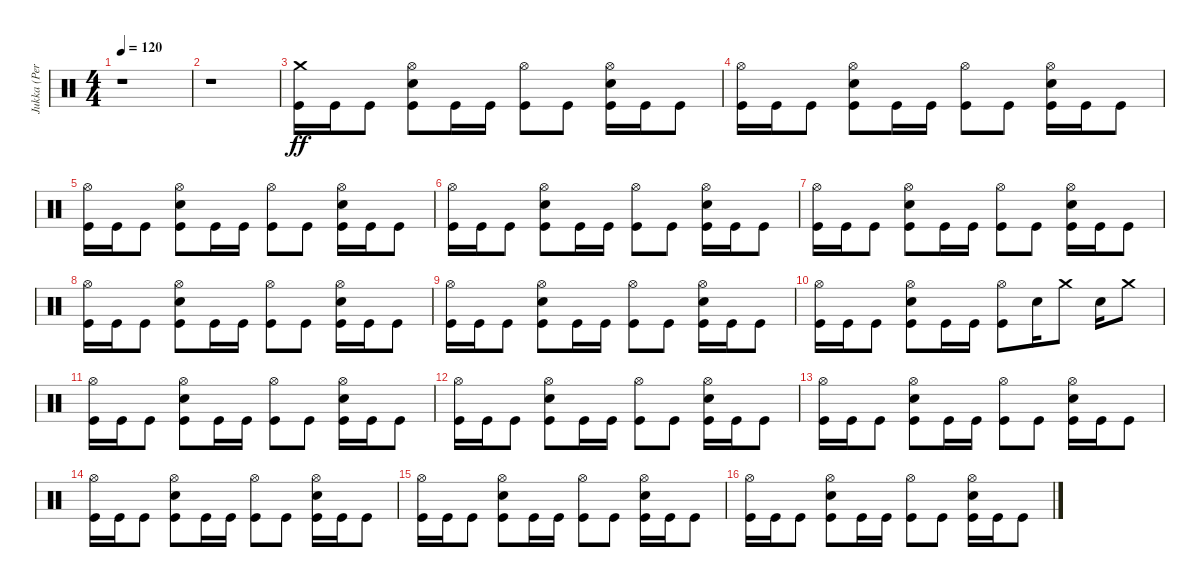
\track ("Jukka (Percussion)" "Jukka (Per") {instrument percussion}
\staff {score}
\articulation defaults
\ts (4 4)
\tempo 120
\clef neutral
\ks c
r.1{dy f} |
r.1 |
("Kick (hit)" "Crash medium (hit)").16{dy ff} "Kick (hit)".16 "Kick (hit)".8 ("Kick (hit)" "Electric Snare (hit)" "Hi-Hat (open)").8 "Kick (hit)".16 "Kick (hit)".16 ("Kick (hit)" "Hi-Hat (open)").8 "Kick (hit)".8 ("Kick (hit)" "Electric Snare (hit)" "Hi-Hat (open)").16 "Kick (hit)".16 "Kick (hit)".8 |
("Kick (hit)" "Hi-Hat (open)").16 "Kick (hit)".16 "Kick (hit)".8 ("Kick (hit)" "Electric Snare (hit)" "Hi-Hat (open)").8 "Kick (hit)".16 "Kick (hit)".16 ("Kick (hit)" "Hi-Hat (open)").8 "Kick (hit)".8 ("Kick (hit)" "Electric Snare (hit)" "Hi-Hat (open)").16 "Kick (hit)".16 "Kick (hit)".8 |
("Kick (hit)" "Hi-Hat (open)").16 "Kick (hit)".16 "Kick (hit)".8 ("Kick (hit)" "Electric Snare (hit)" "Hi-Hat (open)").8 "Kick (hit)".16 "Kick (hit)".16 ("Kick (hit)" "Hi-Hat (open)").8 "Kick (hit)".8 ("Kick (hit)" "Electric Snare (hit)" "Hi-Hat (open)").16 "Kick (hit)".16 "Kick (hit)".8 |
("Kick (hit)" "Hi-Hat (open)").16 "Kick (hit)".16 "Kick (hit)".8 ("Kick (hit)" "Electric Snare (hit)" "Hi-Hat (open)").8 "Kick (hit)".16 "Kick (hit)".16 ("Kick (hit)" "Hi-Hat (open)").8 "Kick (hit)".8 ("Kick (hit)" "Electric Snare (hit)" "Hi-Hat (open)").16 "Kick (hit)".16 "Kick (hit)".8 |
("Kick (hit)" "Hi-Hat (open)").16 "Kick (hit)".16 "Kick (hit)".8 ("Kick (hit)" "Electric Snare (hit)" "Hi-Hat (open)").8 "Kick (hit)".16 "Kick (hit)".16 ("Kick (hit)" "Hi-Hat (open)").8 "Kick (hit)".8 ("Kick (hit)" "Electric Snare (hit)" "Hi-Hat (open)").16 "Kick (hit)".16 "Kick (hit)".8 |
("Kick (hit)" "Hi-Hat (open)").16 "Kick (hit)".16 "Kick (hit)".8 ("Kick (hit)" "Electric Snare (hit)" "Hi-Hat (open)").8 "Kick (hit)".16 "Kick (hit)".16 ("Kick (hit)" "Hi-Hat (open)").8 "Kick (hit)".8 ("Kick (hit)" "Electric Snare (hit)" "Hi-Hat (open)").16 "Kick (hit)".16 "Kick (hit)".8 |
("Kick (hit)" "Hi-Hat (open)").16 "Kick (hit)".16 "Kick (hit)".8 ("Kick (hit)" "Electric Snare (hit)" "Hi-Hat (open)").8 "Kick (hit)".16 "Kick (hit)".16 ("Kick (hit)" "Hi-Hat (open)").8 "Kick (hit)".8 ("Kick (hit)" "Electric Snare (hit)" "Hi-Hat (open)").16 "Kick (hit)".16 "Kick (hit)".8 |
("Kick (hit)" "Hi-Hat (open)").16 "Kick (hit)".16 "Kick (hit)".8 ("Kick (hit)" "Electric Snare (hit)" "Hi-Hat (open)").8 "Kick (hit)".16 "Kick (hit)".16 ("Kick (hit)" "Hi-Hat (open)").8 "Electric Snare (hit)".16 "Crash medium (hit)".8 "Electric Snare (hit)".16 "Crash medium (hit)".8 |
("Kick (hit)" "Hi-Hat (open)").16 "Kick (hit)".16 "Kick (hit)".8 ("Kick (hit)" "Electric Snare (hit)" "Hi-Hat (open)").8 "Kick (hit)".16 "Kick (hit)".16 ("Kick (hit)" "Hi-Hat (open)").8 "Kick (hit)".8 ("Kick (hit)" "Electric Snare (hit)" "Hi-Hat (open)").16 "Kick (hit)".16 "Kick (hit)".8 |
("Kick (hit)" "Hi-Hat (open)").16 "Kick (hit)".16 "Kick (hit)".8 ("Kick (hit)" "Electric Snare (hit)" "Hi-Hat (open)").8 "Kick (hit)".16 "Kick (hit)".16 ("Kick (hit)" "Hi-Hat (open)").8 "Kick (hit)".8 ("Kick (hit)" "Electric Snare (hit)" "Hi-Hat (open)").16 "Kick (hit)".16 "Kick (hit)".8 |
("Kick (hit)" "Hi-Hat (open)").16 "Kick (hit)".16 "Kick (hit)".8 ("Kick (hit)" "Electric Snare (hit)" "Hi-Hat (open)").8 "Kick (hit)".16 "Kick (hit)".16 ("Kick (hit)" "Hi-Hat (open)").8 "Kick (hit)".8 ("Kick (hit)" "Electric Snare (hit)" "Hi-Hat (open)").16 "Kick (hit)".16 "Kick (hit)".8 |
("Kick (hit)" "Hi-Hat (open)").16 "Kick (hit)".16 "Kick (hit)".8 ("Kick (hit)" "Electric Snare (hit)" "Hi-Hat (open)").8 "Kick (hit)".16 "Kick (hit)".16 ("Kick (hit)" "Hi-Hat (open)").8 "Kick (hit)".8 ("Kick (hit)" "Electric Snare (hit)" "Hi-Hat (open)").16 "Kick (hit)".16 "Kick (hit)".8 |
("Kick (hit)" "Hi-Hat (open)").16 "Kick (hit)".16 "Kick (hit)".8 ("Kick (hit)" "Electric Snare (hit)" "Hi-Hat (open)").8 "Kick (hit)".16 "Kick (hit)".16 ("Kick (hit)" "Hi-Hat (open)").8 "Kick (hit)".8 ("Kick (hit)" "Electric Snare (hit)" "Hi-Hat (open)").16 "Kick (hit)".16 "Kick (hit)".8 |
("Kick (hit)" "Hi-Hat (open)").16 "Kick (hit)".16 "Kick (hit)".8 ("Kick (hit)" "Electric Snare (hit)" "Hi-Hat (open)").8 "Kick (hit)".16 "Kick (hit)".16 ("Kick (hit)" "Hi-Hat (open)").8 "Kick (hit)".8 ("Kick (hit)" "Electric Snare (hit)" "Hi-Hat (open)").16 "Kick (hit)".16 "Kick (hit)".8
